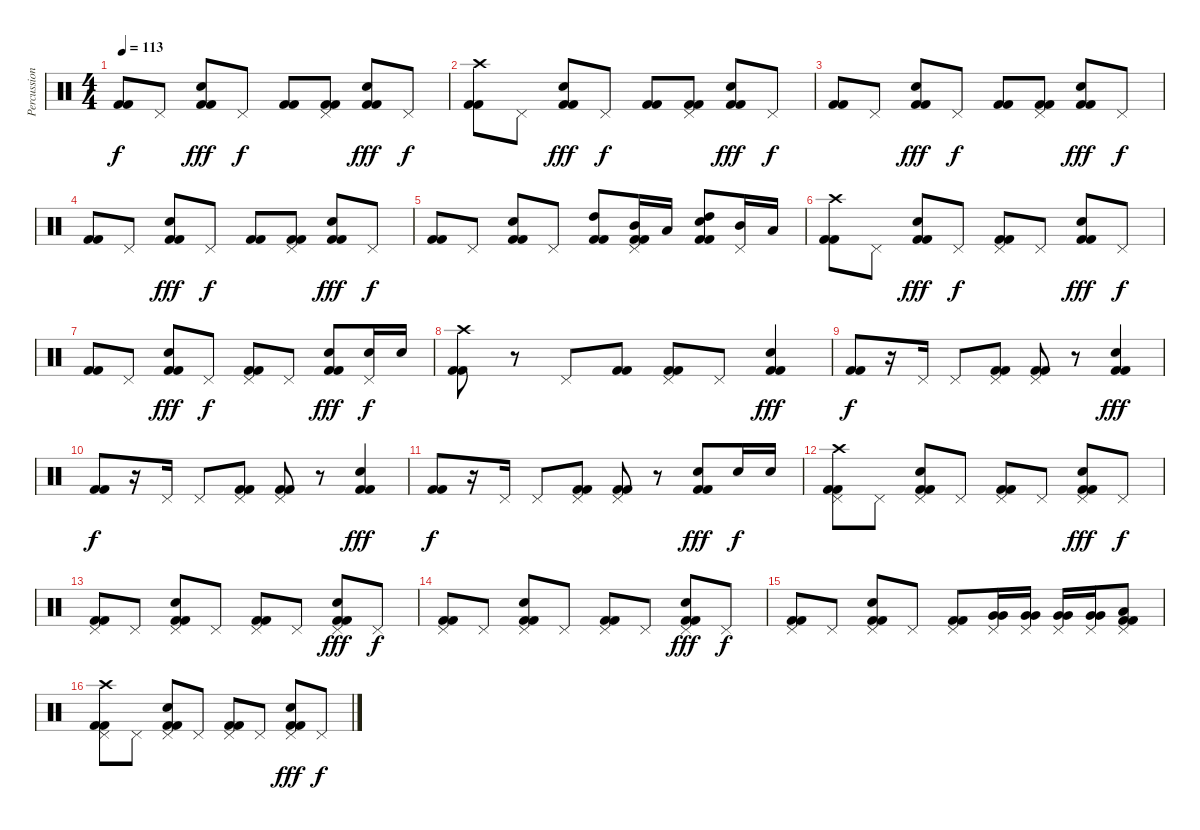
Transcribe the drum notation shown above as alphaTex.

\track ("Percussion" "Percussion") {instrument percussion}
\staff {score}
\articulation defaults
\ts (4 4)
\tempo 113
\clef neutral
\ks c
("Kick (hit) 2" "Kick (hit) 2").8{dy f} "Pedal Hi-Hat (hit)".8 ("Electric Snare (hit)" "Kick (hit) 2" "Kick (hit) 2").8{dy fff} "Pedal Hi-Hat (hit)".8{dy f} ("Kick (hit) 2" "Kick (hit) 2").8 ("Pedal Hi-Hat (hit)" "Kick (hit) 2" "Kick (hit) 2").8 ("Electric Snare (hit)" "Kick (hit) 2" "Kick (hit) 2").8{dy fff} "Pedal Hi-Hat (hit)".8{dy f} |
("Crash high (hit)" "Kick (hit) 2" "Kick (hit) 2").8 "Pedal Hi-Hat (hit)".8 ("Electric Snare (hit)" "Kick (hit) 2" "Kick (hit) 2").8{dy fff} "Pedal Hi-Hat (hit)".8{dy f} ("Kick (hit) 2" "Kick (hit) 2").8 ("Pedal Hi-Hat (hit)" "Kick (hit) 2" "Kick (hit) 2").8 ("Electric Snare (hit)" "Kick (hit) 2" "Kick (hit) 2").8{dy fff} "Pedal Hi-Hat (hit)".8{dy f} |
("Kick (hit) 2" "Kick (hit) 2").8 "Pedal Hi-Hat (hit)".8 ("Electric Snare (hit)" "Kick (hit) 2" "Kick (hit) 2").8{dy fff} "Pedal Hi-Hat (hit)".8{dy f} ("Kick (hit) 2" "Kick (hit) 2").8 ("Pedal Hi-Hat (hit)" "Kick (hit) 2" "Kick (hit) 2").8 ("Electric Snare (hit)" "Kick (hit) 2" "Kick (hit) 2").8{dy fff} "Pedal Hi-Hat (hit)".8{dy f} |
("Kick (hit) 2" "Kick (hit) 2").8 "Pedal Hi-Hat (hit)".8 ("Electric Snare (hit)" "Kick (hit) 2" "Kick (hit) 2").8{dy fff} "Pedal Hi-Hat (hit)".8{dy f} ("Kick (hit) 2" "Kick (hit) 2").8 ("Pedal Hi-Hat (hit)" "Kick (hit) 2" "Kick (hit) 2").8 ("Electric Snare (hit)" "Kick (hit) 2" "Kick (hit) 2").8{dy fff} "Pedal Hi-Hat (hit)".8{dy f} |
("Kick (hit) 2" "Kick (hit) 2").8 "Pedal Hi-Hat (hit)".8 ("Electric Snare (hit)" "Kick (hit) 2" "Kick (hit) 2").8 "Pedal Hi-Hat (hit)".8 ("High Tom (hit)" "Kick (hit) 2" "Kick (hit) 2").8 ("Pedal Hi-Hat (hit)" "Mid Tom (hit)" "Kick (hit) 2" "Kick (hit) 2").16 "Low Tom (hit)".16 ("High Tom (hit)" "Electric Snare (hit)" "Kick (hit) 2" "Kick (hit) 2").8 ("Pedal Hi-Hat (hit)" "Mid Tom (hit)").16 "Low Tom (hit)".16 |
("Crash high (hit)" "Kick (hit) 2" "Kick (hit) 2").8 "Pedal Hi-Hat (hit)".8 ("Electric Snare (hit)" "Kick (hit) 2" "Kick (hit) 2").8{dy fff} "Pedal Hi-Hat (hit)".8{dy f} ("Pedal Hi-Hat (hit)" "Kick (hit) 2" "Kick (hit) 2").8 "Pedal Hi-Hat (hit)".8 ("Electric Snare (hit)" "Kick (hit) 2" "Kick (hit) 2").8{dy fff} "Pedal Hi-Hat (hit)".8{dy f} |
("Kick (hit) 2" "Kick (hit) 2").8 "Pedal Hi-Hat (hit)".8 ("Electric Snare (hit)" "Kick (hit) 2" "Kick (hit) 2").8{dy fff} "Pedal Hi-Hat (hit)".8{dy f} ("Pedal Hi-Hat (hit)" "Kick (hit) 2" "Kick (hit) 2").8 "Pedal Hi-Hat (hit)".8 ("Electric Snare (hit)" "Kick (hit) 2" "Kick (hit) 2").8{dy fff} ("Pedal Hi-Hat (hit)" "Electric Snare (hit)").16{dy f} "Electric Snare (hit)".16 |
("Crash high (hit)" "Kick (hit) 2" "Kick (hit) 2").8 r.8 "Pedal Hi-Hat (hit)".8 ("Kick (hit) 2" "Kick (hit) 2").8 ("Pedal Hi-Hat (hit)" "Kick (hit) 2" "Kick (hit) 2").8 "Pedal Hi-Hat (hit)".8 ("Electric Snare (hit)" "Kick (hit) 2" "Kick (hit) 2").4{dy fff} |
("Kick (hit) 2" "Kick (hit) 2").8{dy f} r.16 "Pedal Hi-Hat (hit)".16 "Pedal Hi-Hat (hit)".8 ("Pedal Hi-Hat (hit)" "Kick (hit) 2" "Kick (hit) 2").8 ("Pedal Hi-Hat (hit)" "Kick (hit) 2" "Kick (hit) 2").8 r.8 ("Electric Snare (hit)" "Kick (hit) 2" "Kick (hit) 2").4{dy fff} |
("Kick (hit) 2" "Kick (hit) 2").8{dy f} r.16 "Pedal Hi-Hat (hit)".16 "Pedal Hi-Hat (hit)".8 ("Pedal Hi-Hat (hit)" "Kick (hit) 2" "Kick (hit) 2").8 ("Pedal Hi-Hat (hit)" "Kick (hit) 2" "Kick (hit) 2").8 r.8 ("Electric Snare (hit)" "Kick (hit) 2" "Kick (hit) 2").4{dy fff} |
("Kick (hit) 2" "Kick (hit) 2").8{dy f} r.16 "Pedal Hi-Hat (hit)".16 "Pedal Hi-Hat (hit)".8 ("Pedal Hi-Hat (hit)" "Kick (hit) 2" "Kick (hit) 2").8 ("Pedal Hi-Hat (hit)" "Kick (hit) 2" "Kick (hit) 2").8 r.8 ("Electric Snare (hit)" "Kick (hit) 2" "Kick (hit) 2").8{dy fff} "Electric Snare (hit)".16{dy f} "Electric Snare (hit)".16 |
("Pedal Hi-Hat (hit)" "Crash high (hit)" "Kick (hit) 2" "Kick (hit) 2").8 "Pedal Hi-Hat (hit)".8 ("Pedal Hi-Hat (hit)" "Electric Snare (hit)" "Kick (hit) 2" "Kick (hit) 2").8 "Pedal Hi-Hat (hit)".8 ("Pedal Hi-Hat (hit)" "Kick (hit) 2" "Kick (hit) 2").8 "Pedal Hi-Hat (hit)".8 ("Pedal Hi-Hat (hit)" "Electric Snare (hit)" "Kick (hit) 2" "Kick (hit) 2").8{dy fff} "Pedal Hi-Hat (hit)".8{dy f} |
("Pedal Hi-Hat (hit)" "Kick (hit) 2" "Kick (hit) 2").8 "Pedal Hi-Hat (hit)".8 ("Pedal Hi-Hat (hit)" "Electric Snare (hit)" "Kick (hit) 2" "Kick (hit) 2").8 "Pedal Hi-Hat (hit)".8 ("Pedal Hi-Hat (hit)" "Kick (hit) 2" "Kick (hit) 2").8 "Pedal Hi-Hat (hit)".8 ("Pedal Hi-Hat (hit)" "Electric Snare (hit)" "Kick (hit) 2" "Kick (hit) 2").8{dy fff} "Pedal Hi-Hat (hit)".8{dy f} |
("Pedal Hi-Hat (hit)" "Kick (hit) 2" "Kick (hit) 2").8 "Pedal Hi-Hat (hit)".8 ("Pedal Hi-Hat (hit)" "Electric Snare (hit)" "Kick (hit) 2" "Kick (hit) 2").8 "Pedal Hi-Hat (hit)".8 ("Pedal Hi-Hat (hit)" "Kick (hit) 2" "Kick (hit) 2").8 "Pedal Hi-Hat (hit)".8 ("Pedal Hi-Hat (hit)" "Electric Snare (hit)" "Kick (hit) 2" "Kick (hit) 2").8{dy fff} "Pedal Hi-Hat (hit)".8{dy f} |
("Pedal Hi-Hat (hit)" "Kick (hit) 2" "Kick (hit) 2").8 "Pedal Hi-Hat (hit)".8 ("Pedal Hi-Hat (hit)" "Electric Snare (hit)" "Kick (hit) 2" "Kick (hit) 2").8 "Pedal Hi-Hat (hit)".8 ("Pedal Hi-Hat (hit)" "Kick (hit) 2" "Kick (hit) 2").8 ("Pedal Hi-Hat (hit)" "Very Low Tom (hit)" "Very Low Tom (hit)").16 ("Pedal Hi-Hat (hit)" "Very Low Tom (hit)" "Very Low Tom (hit)").16 ("Pedal Hi-Hat (hit)" "Very Low Tom (hit)" "Very Low Tom (hit)").16 ("Pedal Hi-Hat (hit)" "Very Low Tom (hit)" "Very Low Tom (hit)").16 ("Pedal Hi-Hat (hit)" "Low Tom (hit)" "Kick (hit) 2" "Kick (hit) 2").8 |
("Pedal Hi-Hat (hit)" "Crash high (hit)" "Kick (hit) 2" "Kick (hit) 2").8 "Pedal Hi-Hat (hit)".8 ("Pedal Hi-Hat (hit)" "Electric Snare (hit)" "Kick (hit) 2" "Kick (hit) 2").8 "Pedal Hi-Hat (hit)".8 ("Pedal Hi-Hat (hit)" "Kick (hit) 2" "Kick (hit) 2").8 "Pedal Hi-Hat (hit)".8 ("Pedal Hi-Hat (hit)" "Electric Snare (hit)" "Kick (hit) 2" "Kick (hit) 2").8{dy fff} "Pedal Hi-Hat (hit)".8{dy f}
